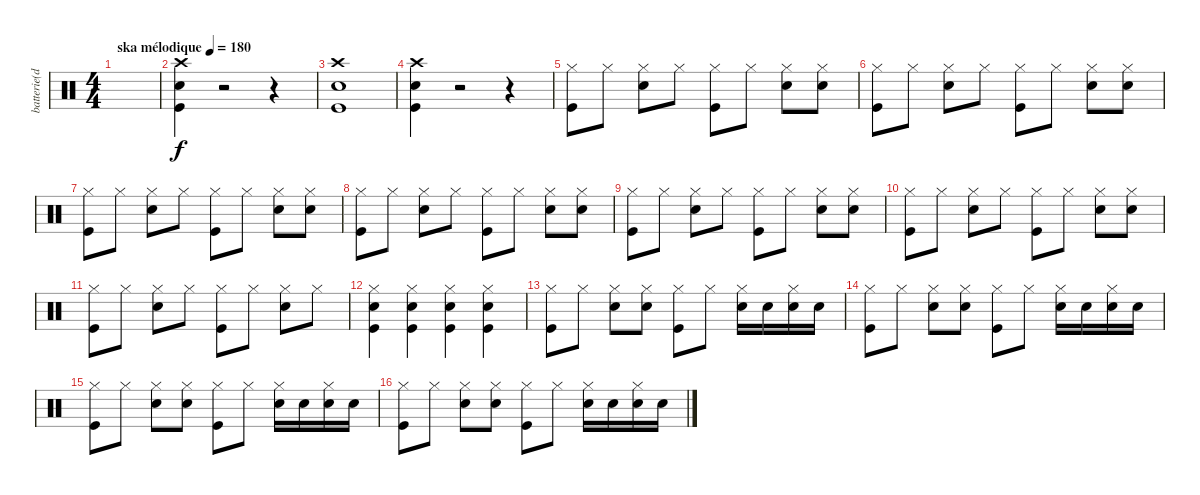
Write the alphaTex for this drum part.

\track ("batterie(dave)" "batterie(d") {instrument percussion}
\staff {score}
\articulation defaults
\ts (4 4)
\tempo (180 "ska mélodique")
\clef neutral
\ks c
|
("Crash high (hit)" "Snare (hit) 2" "Kick (hit)").4 r.2 r.4 |
("Crash high (hit)" "Snare (hit) 2" "Kick (hit)").1 |
("Crash high (hit)" "Snare (hit) 2" "Kick (hit)").4 r.2 r.4 |
("Hi-Hat (closed)" "Kick (hit)").8 "Hi-Hat (closed)".8 ("Hi-Hat (closed)" "Snare (hit) 2").8 "Hi-Hat (closed)".8 ("Hi-Hat (closed)" "Kick (hit)").8 "Hi-Hat (closed)".8 ("Hi-Hat (closed)" "Snare (hit) 2").8 ("Hi-Hat (closed)" "Snare (hit) 2").8 |
("Hi-Hat (closed)" "Kick (hit)").8 "Hi-Hat (closed)".8 ("Hi-Hat (closed)" "Snare (hit) 2").8 "Hi-Hat (closed)".8 ("Hi-Hat (closed)" "Kick (hit)").8 "Hi-Hat (closed)".8 ("Hi-Hat (closed)" "Snare (hit) 2").8 ("Hi-Hat (closed)" "Snare (hit) 2").8 |
("Hi-Hat (closed)" "Kick (hit)").8 "Hi-Hat (closed)".8 ("Hi-Hat (closed)" "Snare (hit) 2").8 "Hi-Hat (closed)".8 ("Hi-Hat (closed)" "Kick (hit)").8 "Hi-Hat (closed)".8 ("Hi-Hat (closed)" "Snare (hit) 2").8 ("Hi-Hat (closed)" "Snare (hit) 2").8 |
("Hi-Hat (closed)" "Kick (hit)").8 "Hi-Hat (closed)".8 ("Hi-Hat (closed)" "Snare (hit) 2").8 "Hi-Hat (closed)".8 ("Hi-Hat (closed)" "Kick (hit)").8 "Hi-Hat (closed)".8 ("Hi-Hat (closed)" "Snare (hit) 2").8 ("Hi-Hat (closed)" "Snare (hit) 2").8 |
("Hi-Hat (closed)" "Kick (hit)").8 "Hi-Hat (closed)".8 ("Hi-Hat (closed)" "Snare (hit) 2").8 "Hi-Hat (closed)".8 ("Hi-Hat (closed)" "Kick (hit)").8 "Hi-Hat (closed)".8 ("Hi-Hat (closed)" "Snare (hit) 2").8 ("Hi-Hat (closed)" "Snare (hit) 2").8 |
("Hi-Hat (closed)" "Kick (hit)").8 "Hi-Hat (closed)".8 ("Hi-Hat (closed)" "Snare (hit) 2").8 "Hi-Hat (closed)".8 ("Hi-Hat (closed)" "Kick (hit)").8 "Hi-Hat (closed)".8 ("Hi-Hat (closed)" "Snare (hit) 2").8 ("Hi-Hat (closed)" "Snare (hit) 2").8 |
("Hi-Hat (closed)" "Kick (hit)").8 "Hi-Hat (closed)".8 ("Hi-Hat (closed)" "Snare (hit) 2").8 "Hi-Hat (closed)".8 ("Hi-Hat (closed)" "Kick (hit)").8 "Hi-Hat (closed)".8 ("Hi-Hat (closed)" "Snare (hit) 2").8 "Hi-Hat (closed)".8 |
("Hi-Hat (closed)" "Snare (hit) 2" "Kick (hit)").4 ("Hi-Hat (closed)" "Snare (hit) 2" "Kick (hit)").4 ("Hi-Hat (closed)" "Snare (hit) 2" "Kick (hit)").4 ("Hi-Hat (closed)" "Snare (hit) 2" "Kick (hit)").4 |
("Hi-Hat (closed)" "Kick (hit)").8 "Hi-Hat (closed)".8 ("Hi-Hat (closed)" "Snare (hit) 2").8 ("Hi-Hat (closed)" "Snare (hit) 2").8 ("Hi-Hat (closed)" "Kick (hit)").8 "Hi-Hat (closed)".8 ("Hi-Hat (closed)" "Snare (hit) 2").16 "Snare (hit) 2".16 ("Hi-Hat (closed)" "Snare (hit) 2").16 "Snare (hit) 2".16 |
("Hi-Hat (closed)" "Kick (hit)").8 "Hi-Hat (closed)".8 ("Hi-Hat (closed)" "Snare (hit) 2").8 ("Hi-Hat (closed)" "Snare (hit) 2").8 ("Hi-Hat (closed)" "Kick (hit)").8 "Hi-Hat (closed)".8 ("Hi-Hat (closed)" "Snare (hit) 2").16 "Snare (hit) 2".16 ("Hi-Hat (closed)" "Snare (hit) 2").16 "Snare (hit) 2".16 |
("Hi-Hat (closed)" "Kick (hit)").8 "Hi-Hat (closed)".8 ("Hi-Hat (closed)" "Snare (hit) 2").8 ("Hi-Hat (closed)" "Snare (hit) 2").8 ("Hi-Hat (closed)" "Kick (hit)").8 "Hi-Hat (closed)".8 ("Hi-Hat (closed)" "Snare (hit) 2").16 "Snare (hit) 2".16 ("Hi-Hat (closed)" "Snare (hit) 2").16 "Snare (hit) 2".16 |
("Hi-Hat (closed)" "Kick (hit)").8 "Hi-Hat (closed)".8 ("Hi-Hat (closed)" "Snare (hit) 2").8 ("Hi-Hat (closed)" "Snare (hit) 2").8 ("Hi-Hat (closed)" "Kick (hit)").8 "Hi-Hat (closed)".8 ("Hi-Hat (closed)" "Snare (hit) 2").16 "Snare (hit) 2".16 ("Hi-Hat (closed)" "Snare (hit) 2").16 "Snare (hit) 2".16
